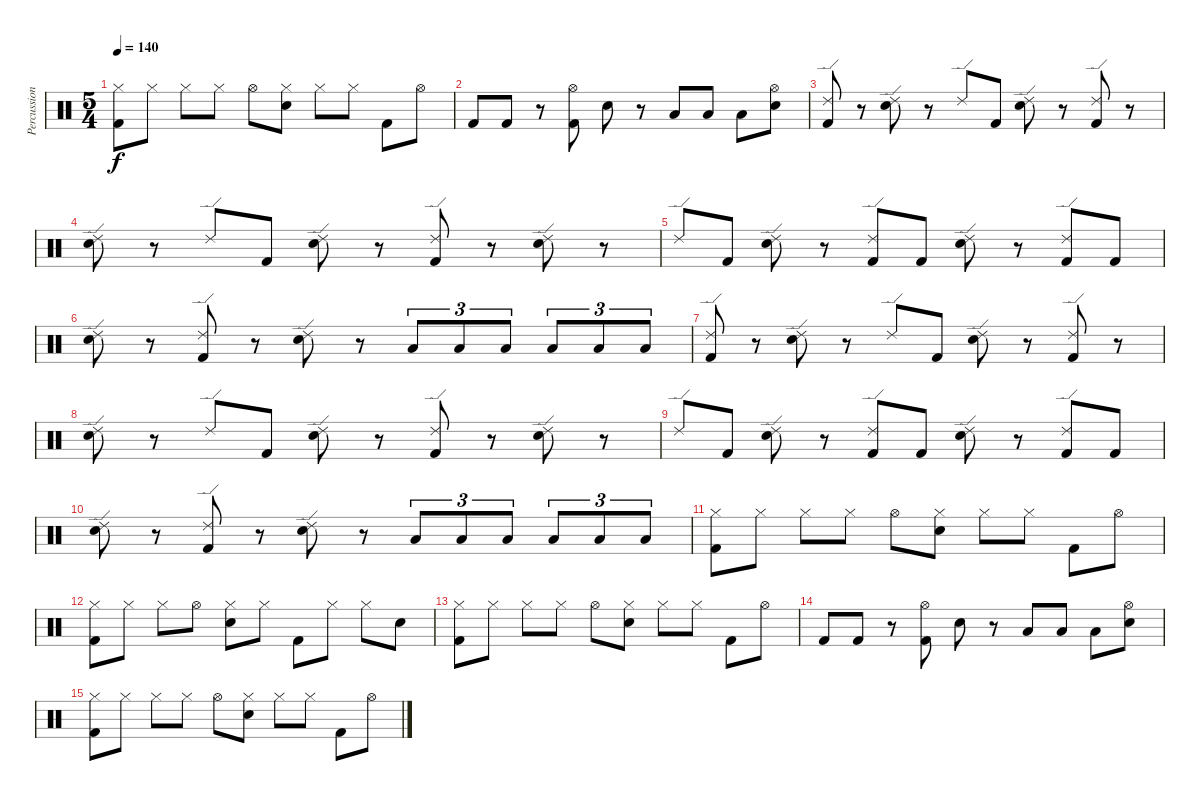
\track ("Percussion" "Percussion") {instrument percussion}
\staff {score}
\articulation defaults
\ts (5 4)
\tempo 140
\clef neutral
\ks c
("Hi-Hat (closed)" "Kick (hit) 2").8{dy f} "Hi-Hat (closed)".8 "Hi-Hat (closed)".8 "Hi-Hat (closed)".8 "Hi-Hat (open)".8 ("Hi-Hat (closed)" "Snare (hit) 2").8 "Hi-Hat (closed)".8 "Hi-Hat (closed)".8 "Kick (hit) 2".8 "Hi-Hat (open)".8 |
"Kick (hit) 2".8 "Kick (hit) 2".8 r.8 ("Hi-Hat (open)" "Kick (hit) 2").8 "Snare (hit) 2".8 r.8 "Low Tom (hit)".8 "Low Tom (hit)".8 "Low Tom (hit)".8 ("Hi-Hat (open)" "Snare (hit) 2").8 |
("Ride (edge) 2" "Kick (hit) 2").8 r.8 ("Ride (edge) 2" "Snare (hit) 2").8 r.8 "Ride (edge) 2".8 "Kick (hit) 2".8 ("Ride (edge) 2" "Snare (hit) 2").8 r.8 ("Ride (edge) 2" "Kick (hit) 2").8 r.8 |
("Ride (edge) 2" "Snare (hit) 2").8 r.8 "Ride (edge) 2".8 "Kick (hit) 2".8 ("Ride (edge) 2" "Snare (hit) 2").8 r.8 ("Ride (edge) 2" "Kick (hit) 2").8 r.8 ("Ride (edge) 2" "Snare (hit) 2").8 r.8 |
"Ride (edge) 2".8 "Kick (hit) 2".8 ("Ride (edge) 2" "Snare (hit) 2").8 r.8 ("Ride (edge) 2" "Kick (hit) 2").8 "Kick (hit) 2".8 ("Ride (edge) 2" "Snare (hit) 2").8 r.8 ("Ride (edge) 2" "Kick (hit) 2").8 "Kick (hit) 2".8 |
("Ride (edge) 2" "Snare (hit) 2").8 r.8 ("Ride (edge) 2" "Kick (hit) 2").8 r.8 ("Ride (edge) 2" "Snare (hit) 2").8 r.8 "Low Tom (hit)".8{tu (3 2)} "Low Tom (hit)".8{tu (3 2)} "Low Tom (hit)".8{tu (3 2)} "Low Tom (hit)".8{tu (3 2)} "Low Tom (hit)".8{tu (3 2)} "Low Tom (hit)".8{tu (3 2)} |
("Ride (edge) 2" "Kick (hit) 2").8 r.8 ("Ride (edge) 2" "Snare (hit) 2").8 r.8 "Ride (edge) 2".8 "Kick (hit) 2".8 ("Ride (edge) 2" "Snare (hit) 2").8 r.8 ("Ride (edge) 2" "Kick (hit) 2").8 r.8 |
("Ride (edge) 2" "Snare (hit) 2").8 r.8 "Ride (edge) 2".8 "Kick (hit) 2".8 ("Ride (edge) 2" "Snare (hit) 2").8 r.8 ("Ride (edge) 2" "Kick (hit) 2").8 r.8 ("Ride (edge) 2" "Snare (hit) 2").8 r.8 |
"Ride (edge) 2".8 "Kick (hit) 2".8 ("Ride (edge) 2" "Snare (hit) 2").8 r.8 ("Ride (edge) 2" "Kick (hit) 2").8 "Kick (hit) 2".8 ("Ride (edge) 2" "Snare (hit) 2").8 r.8 ("Ride (edge) 2" "Kick (hit) 2").8 "Kick (hit) 2".8 |
("Ride (edge) 2" "Snare (hit) 2").8 r.8 ("Ride (edge) 2" "Kick (hit) 2").8 r.8 ("Ride (edge) 2" "Snare (hit) 2").8 r.8 "Low Tom (hit)".8{tu (3 2)} "Low Tom (hit)".8{tu (3 2)} "Low Tom (hit)".8{tu (3 2)} "Low Tom (hit)".8{tu (3 2)} "Low Tom (hit)".8{tu (3 2)} "Low Tom (hit)".8{tu (3 2)} |
("Hi-Hat (closed)" "Kick (hit) 2").8 "Hi-Hat (closed)".8 "Hi-Hat (closed)".8 "Hi-Hat (closed)".8 "Hi-Hat (open)".8 ("Hi-Hat (closed)" "Snare (hit) 2").8 "Hi-Hat (closed)".8 "Hi-Hat (closed)".8 "Kick (hit) 2".8 "Hi-Hat (open)".8 |
("Hi-Hat (closed)" "Kick (hit) 2").8 "Hi-Hat (closed)".8 "Hi-Hat (closed)".8 "Hi-Hat (open)".8 ("Hi-Hat (closed)" "Snare (hit) 2").8 "Hi-Hat (closed)".8{volume 11} "Kick (hit) 2".8 "Hi-Hat (closed)".8 "Hi-Hat (closed)".8 "Snare (hit) 2".8 |
("Hi-Hat (closed)" "Kick (hit) 2").8{volume 10} "Hi-Hat (closed)".8 "Hi-Hat (closed)".8 "Hi-Hat (closed)".8 "Hi-Hat (open)".8 ("Hi-Hat (closed)" "Snare (hit) 2").8 "Hi-Hat (closed)".8 "Hi-Hat (closed)".8 "Kick (hit) 2".8 "Hi-Hat (open)".8 |
"Kick (hit) 2".8{volume 8} "Kick (hit) 2".8 r.8 ("Hi-Hat (open)" "Kick (hit) 2").8 "Snare (hit) 2".8 r.8 "Low Tom (hit)".8 "Low Tom (hit)".8 "Low Tom (hit)".8 ("Hi-Hat (open)" "Snare (hit) 2").8 |
("Hi-Hat (closed)" "Kick (hit) 2").8{volume 6} "Hi-Hat (closed)".8 "Hi-Hat (closed)".8 "Hi-Hat (closed)".8 "Hi-Hat (open)".8 ("Hi-Hat (closed)" "Snare (hit) 2").8 "Hi-Hat (closed)".8 "Hi-Hat (closed)".8 "Kick (hit) 2".8 "Hi-Hat (open)".8
